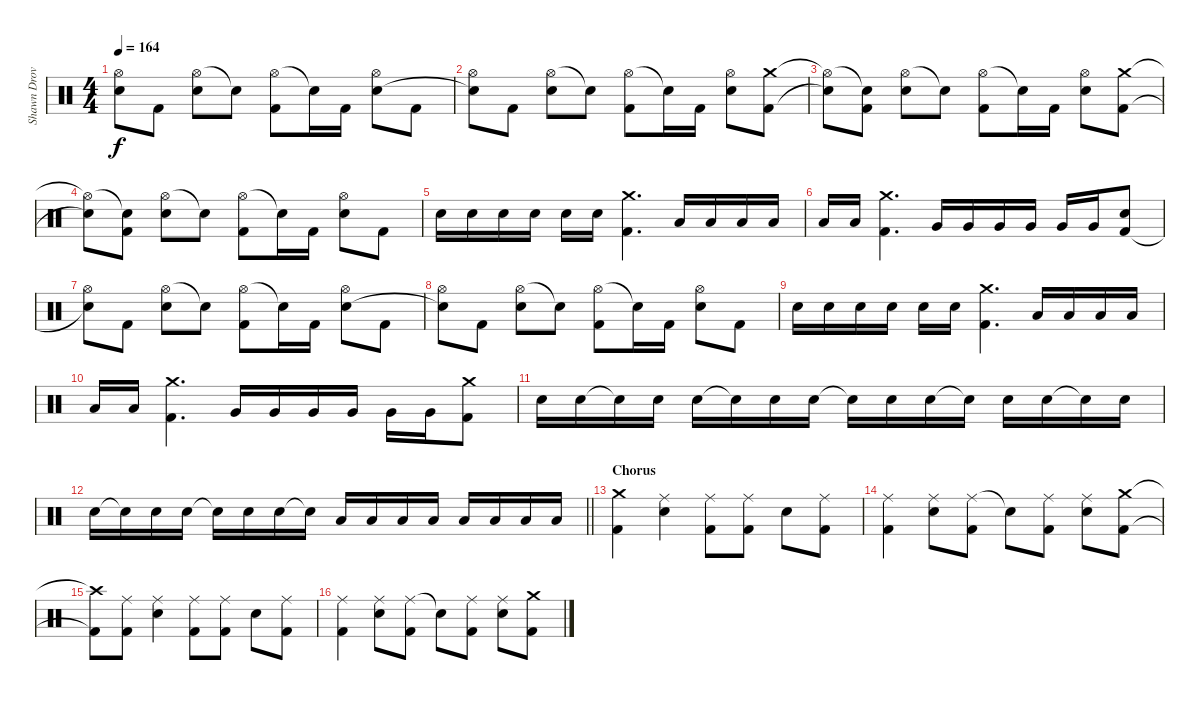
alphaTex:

\track ("Shawn Drover" "Shawn Drov") {instrument percussion}
\staff {score}
\articulation defaults
\ts (4 4)
\tempo 164
\clef neutral
\ks c
("Hi-Hat (open)" "Snare (hit)"{t}).8{dy f} "Kick (hit) 2".8 ("Hi-Hat (open)" "Snare (hit) 2").8 "Snare (hit)"{t}.8 ("Hi-Hat (open)" "Kick (hit) 2").8 "Snare (hit)"{t}.16 "Kick (hit) 2".16 ("Hi-Hat (open)" "Snare (hit) 2").8 "Kick (hit) 2".8 |
("Hi-Hat (open)" "Snare (hit)"{t}).8 "Kick (hit) 2".8 ("Hi-Hat (open)" "Snare (hit) 2").8 "Snare (hit)"{t}.8 ("Hi-Hat (open)" "Kick (hit) 2").8 "Snare (hit)"{t}.16 "Kick (hit) 2".16 ("Hi-Hat (open)" "Snare (hit) 2").8 ("Crash medium (hit)" "Kick (hit) 2").8 |
("Hi-Hat (open)"{t} "Snare (hit)"{t}).8 ("Snare (hit)"{t} "Kick (hit) 2").8 ("Hi-Hat (open)" "Snare (hit) 2").8 "Snare (hit)"{t}.8 ("Hi-Hat (open)" "Kick (hit) 2").8 "Snare (hit)"{t}.16 "Kick (hit) 2".16 ("Hi-Hat (open)" "Snare (hit) 2").8 ("Crash medium (hit)" "Kick (hit) 2").8 |
("Hi-Hat (open)"{t} "Snare (hit)"{t}).8 ("Snare (hit)"{t} "Kick (hit) 2").8 ("Hi-Hat (open)" "Snare (hit) 2").8 "Snare (hit)"{t}.8 ("Hi-Hat (open)" "Kick (hit) 2").8 "Snare (hit)"{t}.16 "Kick (hit) 2".16 ("Hi-Hat (open)" "Snare (hit) 2").8 "Kick (hit) 2".8 |
"Snare (hit) 2".16 "Snare (hit) 2".16 "Snare (hit) 2".16 "Snare (hit) 2".16 "Snare (hit) 2".16 "Snare (hit) 2".16 ("Crash medium (hit)" "Kick (hit) 2").4{d} "Low Tom (hit)".16 "Low Tom (hit)".16 "Low Tom (hit)".16 "Low Tom (hit)".16 |
"Low Tom (hit)".16 "Low Tom (hit)".16 ("Crash medium (hit)" "Kick (hit) 2").4{d} "Very Low Tom (hit)".16 "Very Low Tom (hit)".16 "Very Low Tom (hit)".16 "Very Low Tom (hit)".16 "Very Low Tom (hit)".16 "Very Low Tom (hit)".16 ("Snare (hit)" "Kick (hit) 2").8 |
("Hi-Hat (open)" "Snare (hit)"{t}).8 "Kick (hit) 2".8 ("Hi-Hat (open)" "Snare (hit) 2").8 "Snare (hit)"{t}.8 ("Hi-Hat (open)" "Kick (hit) 2").8 "Snare (hit)"{t}.16 "Kick (hit) 2".16 ("Hi-Hat (open)" "Snare (hit) 2").8 "Kick (hit) 2".8 |
("Hi-Hat (open)" "Snare (hit)"{t}).8 "Kick (hit) 2".8 ("Hi-Hat (open)" "Snare (hit) 2").8 "Snare (hit)"{t}.8 ("Hi-Hat (open)" "Kick (hit) 2").8 "Snare (hit)"{t}.16 "Kick (hit) 2".16 ("Hi-Hat (open)" "Snare (hit) 2").8 "Kick (hit) 2".8 |
"Snare (hit) 2".16 "Snare (hit) 2".16 "Snare (hit) 2".16 "Snare (hit) 2".16 "Snare (hit) 2".16 "Snare (hit) 2".16 ("Crash medium (hit)" "Kick (hit) 2").4{d} "Low Tom (hit)".16 "Low Tom (hit)".16 "Low Tom (hit)".16 "Low Tom (hit)".16 |
"Low Tom (hit)".16 "Low Tom (hit)".16 ("Crash medium (hit)" "Kick (hit) 2").4{d} "Very Low Tom (hit)".16 "Very Low Tom (hit)".16 "Very Low Tom (hit)".16 "Very Low Tom (hit)".16 "Very Low Tom (hit)".16 "Very Low Tom (hit)".16 ("Crash medium (hit)" "Kick (hit) 2").8 |
"Snare (hit) 2".16 "Snare (hit) 2".16 "Snare (hit)"{t}.16 "Snare (hit) 2".16 "Snare (hit) 2".16 "Snare (hit)"{t}.16 "Snare (hit) 2".16 "Snare (hit) 2".16 "Snare (hit)"{t}.16 "Snare (hit) 2".16 "Snare (hit) 2".16 "Snare (hit)"{t}.16 "Snare (hit) 2".16 "Snare (hit) 2".16 "Snare (hit)"{t}.16 "Snare (hit) 2".16 |
\barLineRight lightlight "Snare (hit) 2".16 "Snare (hit)"{t}.16 "Snare (hit) 2".16 "Snare (hit) 2".16 "Snare (hit)"{t}.16 "Snare (hit) 2".16 "Snare (hit) 2".16 "Snare (hit)"{t}.16 "Low Tom (hit)".16 "Low Tom (hit)".16 "Low Tom (hit)".16 "Low Tom (hit)".16 "Low Tom (hit)".16 "Low Tom (hit)".16 "Low Tom (hit)".16 "Low Tom (hit)".16
|
\section ("" "Chorus")
("Crash medium (hit)" "Kick (hit) 2").4 ("Ride (middle)" "Snare (hit) 2").4 ("Ride (middle)" "Kick (hit) 2").8 ("Ride (middle)" "Kick (hit) 2").8 "Snare (hit) 2".8 ("Ride (middle)" "Kick (hit) 2").8 |
("Ride (middle)" "Kick (hit) 2").4 ("Ride (middle)" "Snare (hit) 2").8 ("Ride (middle)" "Kick (hit) 2").8 "Snare (hit)"{t}.8 ("Ride (middle)" "Kick (hit) 2").8 ("Ride (middle)" "Snare (hit) 2").8 ("Crash medium (hit)" "Kick (hit) 2").8 |
("Crash high (hit)"{t} "Kick (hit) 2"{t}).8 ("Ride (middle)" "Kick (hit) 2").8 ("Ride (middle)" "Snare (hit) 2").4 ("Ride (middle)" "Kick (hit) 2").8 ("Ride (middle)" "Kick (hit) 2").8 "Snare (hit) 2".8 ("Ride (middle)" "Kick (hit) 2").8 |
("Ride (middle)" "Kick (hit) 2").4 ("Ride (middle)" "Snare (hit) 2").8 ("Ride (middle)" "Kick (hit) 2").8 "Snare (hit)"{t}.8 ("Ride (middle)" "Kick (hit) 2").8 ("Ride (middle)" "Snare (hit) 2").8 ("Crash medium (hit)" "Kick (hit) 2").8
